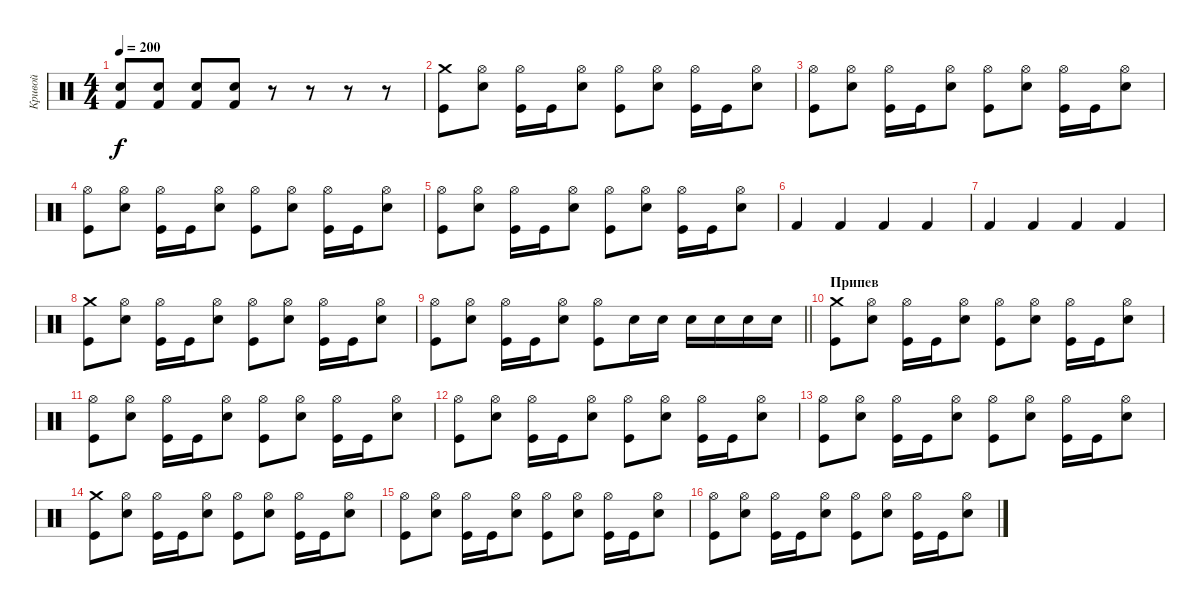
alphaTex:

\track ("Кривой" "Кривой") {instrument percussion}
\staff {score}
\articulation defaults
\ts (4 4)
\tempo 200
\clef neutral
\ks c
("Kick (hit) 2" "Electric Snare (hit)").8{dy f} ("Kick (hit) 2" "Electric Snare (hit)").8 ("Kick (hit) 2" "Electric Snare (hit)").8 ("Kick (hit) 2" "Electric Snare (hit)").8 r.8 r.8 r.8 r.8 |
("Crash medium (hit)" "Kick (hit)").8 ("Hi-Hat (open)" "Electric Snare (hit)").8 ("Hi-Hat (open)" "Kick (hit)").16 "Kick (hit)".16 ("Hi-Hat (open)" "Electric Snare (hit)").8 ("Hi-Hat (open)" "Kick (hit)").8 ("Hi-Hat (open)" "Electric Snare (hit)").8 ("Hi-Hat (open)" "Kick (hit)").16 "Kick (hit)".16 ("Hi-Hat (open)" "Electric Snare (hit)").8 |
("Hi-Hat (open)" "Kick (hit)").8 ("Hi-Hat (open)" "Electric Snare (hit)").8 ("Hi-Hat (open)" "Kick (hit)").16 "Kick (hit)".16 ("Hi-Hat (open)" "Electric Snare (hit)").8 ("Hi-Hat (open)" "Kick (hit)").8 ("Hi-Hat (open)" "Electric Snare (hit)").8 ("Hi-Hat (open)" "Kick (hit)").16 "Kick (hit)".16 ("Hi-Hat (open)" "Electric Snare (hit)").8 |
("Hi-Hat (open)" "Kick (hit)").8 ("Hi-Hat (open)" "Electric Snare (hit)").8 ("Hi-Hat (open)" "Kick (hit)").16 "Kick (hit)".16 ("Hi-Hat (open)" "Electric Snare (hit)").8 ("Hi-Hat (open)" "Kick (hit)").8 ("Hi-Hat (open)" "Electric Snare (hit)").8 ("Hi-Hat (open)" "Kick (hit)").16 "Kick (hit)".16 ("Hi-Hat (open)" "Electric Snare (hit)").8 |
("Hi-Hat (open)" "Kick (hit)").8 ("Hi-Hat (open)" "Electric Snare (hit)").8 ("Hi-Hat (open)" "Kick (hit)").16 "Kick (hit)".16 ("Hi-Hat (open)" "Electric Snare (hit)").8 ("Hi-Hat (open)" "Kick (hit)").8 ("Hi-Hat (open)" "Electric Snare (hit)").8 ("Hi-Hat (open)" "Kick (hit)").16 "Kick (hit)".16 ("Hi-Hat (open)" "Electric Snare (hit)").8 |
"Kick (hit) 2".4 "Kick (hit) 2".4 "Kick (hit) 2".4 "Kick (hit) 2".4 |
"Kick (hit) 2".4 "Kick (hit) 2".4 "Kick (hit) 2".4 "Kick (hit) 2".4 |
("Crash medium (hit)" "Kick (hit)").8 ("Hi-Hat (open)" "Electric Snare (hit)").8 ("Hi-Hat (open)" "Kick (hit)").16 "Kick (hit)".16 ("Hi-Hat (open)" "Electric Snare (hit)").8 ("Hi-Hat (open)" "Kick (hit)").8 ("Hi-Hat (open)" "Electric Snare (hit)").8 ("Hi-Hat (open)" "Kick (hit)").16 "Kick (hit)".16 ("Hi-Hat (open)" "Electric Snare (hit)").8 |
\barLineRight lightlight
("Hi-Hat (open)" "Kick (hit)").8 ("Hi-Hat (open)" "Electric Snare (hit)").8 ("Hi-Hat (open)" "Kick (hit)").16 "Kick (hit)".16 ("Hi-Hat (open)" "Electric Snare (hit)").8 ("Hi-Hat (open)" "Kick (hit)").8 "Electric Snare (hit)".16 "Electric Snare (hit)".16 "Electric Snare (hit)".16 "Electric Snare (hit)".16 "Electric Snare (hit)".16 "Electric Snare (hit)".16 |
\section ("" "Припев")
("Crash medium (hit)" "Kick (hit)").8 ("Hi-Hat (open)" "Electric Snare (hit)").8 ("Hi-Hat (open)" "Kick (hit)").16 "Kick (hit)".16 ("Hi-Hat (open)" "Electric Snare (hit)").8 ("Hi-Hat (open)" "Kick (hit)").8 ("Hi-Hat (open)" "Electric Snare (hit)").8 ("Hi-Hat (open)" "Kick (hit)").16 "Kick (hit)".16 ("Hi-Hat (open)" "Electric Snare (hit)").8 |
("Hi-Hat (open)" "Kick (hit)").8 ("Hi-Hat (open)" "Electric Snare (hit)").8 ("Hi-Hat (open)" "Kick (hit)").16 "Kick (hit)".16 ("Hi-Hat (open)" "Electric Snare (hit)").8 ("Hi-Hat (open)" "Kick (hit)").8 ("Hi-Hat (open)" "Electric Snare (hit)").8 ("Hi-Hat (open)" "Kick (hit)").16 "Kick (hit)".16 ("Hi-Hat (open)" "Electric Snare (hit)").8 |
("Hi-Hat (open)" "Kick (hit)").8 ("Hi-Hat (open)" "Electric Snare (hit)").8 ("Hi-Hat (open)" "Kick (hit)").16 "Kick (hit)".16 ("Hi-Hat (open)" "Electric Snare (hit)").8 ("Hi-Hat (open)" "Kick (hit)").8 ("Hi-Hat (open)" "Electric Snare (hit)").8 ("Hi-Hat (open)" "Kick (hit)").16 "Kick (hit)".16 ("Hi-Hat (open)" "Electric Snare (hit)").8 |
("Hi-Hat (open)" "Kick (hit)").8 ("Hi-Hat (open)" "Electric Snare (hit)").8 ("Hi-Hat (open)" "Kick (hit)").16 "Kick (hit)".16 ("Hi-Hat (open)" "Electric Snare (hit)").8 ("Hi-Hat (open)" "Kick (hit)").8 ("Hi-Hat (open)" "Electric Snare (hit)").8 ("Hi-Hat (open)" "Kick (hit)").16 "Kick (hit)".16 ("Hi-Hat (open)" "Electric Snare (hit)").8 |
("Crash medium (hit)" "Kick (hit)").8 ("Hi-Hat (open)" "Electric Snare (hit)").8 ("Hi-Hat (open)" "Kick (hit)").16 "Kick (hit)".16 ("Hi-Hat (open)" "Electric Snare (hit)").8 ("Hi-Hat (open)" "Kick (hit)").8 ("Hi-Hat (open)" "Electric Snare (hit)").8 ("Hi-Hat (open)" "Kick (hit)").16 "Kick (hit)".16 ("Hi-Hat (open)" "Electric Snare (hit)").8 |
("Hi-Hat (open)" "Kick (hit)").8 ("Hi-Hat (open)" "Electric Snare (hit)").8 ("Hi-Hat (open)" "Kick (hit)").16 "Kick (hit)".16 ("Hi-Hat (open)" "Electric Snare (hit)").8 ("Hi-Hat (open)" "Kick (hit)").8 ("Hi-Hat (open)" "Electric Snare (hit)").8 ("Hi-Hat (open)" "Kick (hit)").16 "Kick (hit)".16 ("Hi-Hat (open)" "Electric Snare (hit)").8 |
("Hi-Hat (open)" "Kick (hit)").8 ("Hi-Hat (open)" "Electric Snare (hit)").8 ("Hi-Hat (open)" "Kick (hit)").16 "Kick (hit)".16 ("Hi-Hat (open)" "Electric Snare (hit)").8 ("Hi-Hat (open)" "Kick (hit)").8 ("Hi-Hat (open)" "Electric Snare (hit)").8 ("Hi-Hat (open)" "Kick (hit)").16 "Kick (hit)".16 ("Hi-Hat (open)" "Electric Snare (hit)").8
